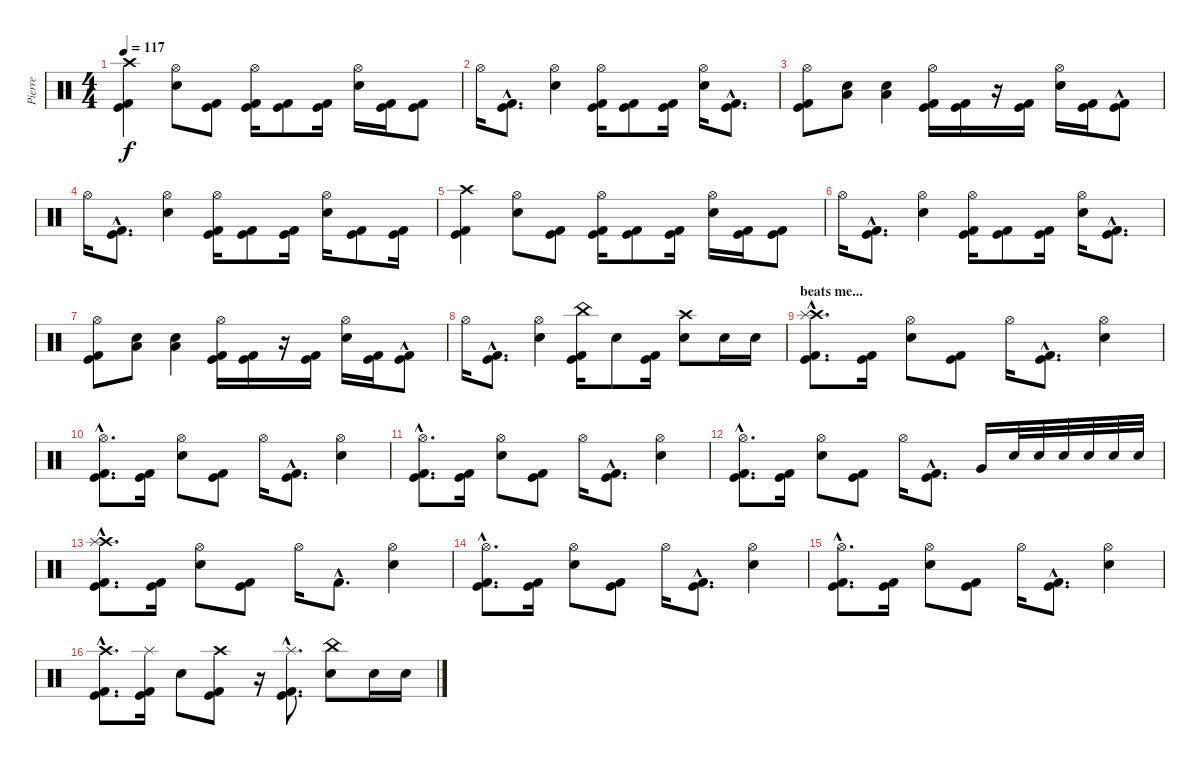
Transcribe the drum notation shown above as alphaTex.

\track ("Pierre" "Pierre") {instrument percussion}
\staff {score}
\articulation defaults
\ts (4 4)
\tempo 117
\clef neutral
\ks c
("Crash high (hit)" "Kick (hit)" "Kick (hit) 2").4{dy f} ("Hi-Hat (open)" "Electric Snare (hit)").8 ("Kick (hit)" "Kick (hit) 2").8 ("Hi-Hat (open)" "Kick (hit)" "Kick (hit) 2").16 ("Kick (hit)" "Kick (hit) 2").8 ("Kick (hit)" "Kick (hit) 2").16 ("Hi-Hat (open)" "Electric Snare (hit)").16 ("Kick (hit)" "Kick (hit) 2").16 ("Kick (hit)" "Kick (hit) 2").8 |
"Hi-Hat (open)".16 ("Kick (hit)"{hac} "Kick (hit) 2"{hac}).8{d} ("Hi-Hat (open)" "Electric Snare (hit)").4 ("Hi-Hat (open)" "Kick (hit)" "Kick (hit) 2").16 ("Kick (hit)" "Kick (hit) 2").8 ("Kick (hit)" "Kick (hit) 2").16 ("Hi-Hat (open)" "Electric Snare (hit)").16 ("Kick (hit)" "Kick (hit) 2"{hac}).8{d} |
("Hi-Hat (open)" "Kick (hit)" "Kick (hit) 2").8 ("Low Floor Tom (hit)" "Electric Snare (hit)").8 ("Low Floor Tom (hit)" "Electric Snare (hit)").4 ("Hi-Hat (open)" "Kick (hit) 2" "Kick (hit)").16 ("Kick (hit)" "Kick (hit) 2").16 r.16 ("Kick (hit)" "Kick (hit) 2").16 ("Hi-Hat (open)" "Electric Snare (hit)").16 ("Kick (hit)" "Kick (hit) 2").16 ("Kick (hit)" "Kick (hit) 2"{hac}).8 |
"Hi-Hat (open)".16 ("Kick (hit)"{hac} "Kick (hit) 2"{hac}).8{d} ("Hi-Hat (open)" "Electric Snare (hit)").4 ("Hi-Hat (open)" "Kick (hit)" "Kick (hit) 2").16 ("Kick (hit)" "Kick (hit) 2").8 ("Kick (hit)" "Kick (hit) 2").16 ("Hi-Hat (open)" "Electric Snare (hit)").16 ("Kick (hit)" "Kick (hit) 2").8 ("Kick (hit)" "Kick (hit) 2").16 |
("Crash high (hit)" "Kick (hit)" "Kick (hit) 2").4 ("Hi-Hat (open)" "Electric Snare (hit)").8 ("Kick (hit)" "Kick (hit) 2").8 ("Hi-Hat (open)" "Kick (hit)" "Kick (hit) 2").16 ("Kick (hit)" "Kick (hit) 2").8 ("Kick (hit)" "Kick (hit) 2").16 ("Hi-Hat (open)" "Electric Snare (hit)").16 ("Kick (hit)" "Kick (hit) 2").16 ("Kick (hit)" "Kick (hit) 2").8 |
"Hi-Hat (open)".16 ("Kick (hit)"{hac} "Kick (hit) 2"{hac}).8{d} ("Hi-Hat (open)" "Electric Snare (hit)").4 ("Hi-Hat (open)" "Kick (hit)" "Kick (hit) 2").16 ("Kick (hit)" "Kick (hit) 2").8 ("Kick (hit)" "Kick (hit) 2").16 ("Hi-Hat (open)" "Electric Snare (hit)").16 ("Kick (hit)" "Kick (hit) 2"{hac}).8{d} |
("Hi-Hat (open)" "Kick (hit)" "Kick (hit) 2").8 ("Low Floor Tom (hit)" "Electric Snare (hit)").8 ("Low Floor Tom (hit)" "Electric Snare (hit)").4 ("Hi-Hat (open)" "Kick (hit) 2" "Kick (hit)").16 ("Kick (hit)" "Kick (hit) 2").16 r.16 ("Kick (hit)" "Kick (hit) 2").16 ("Hi-Hat (open)" "Electric Snare (hit)").16 ("Kick (hit)" "Kick (hit) 2").16 ("Kick (hit)" "Kick (hit) 2"{hac}).8 |
"Hi-Hat (open)".16 ("Kick (hit)"{hac} "Kick (hit) 2"{hac}).8{d} ("Hi-Hat (open)" "Electric Snare (hit)").4 ("China (hit)" "Kick (hit)" "Kick (hit) 2").16 "Electric Snare (hit)".8 ("Kick (hit)" "Kick (hit) 2").16 ("Crash high (hit)" "Electric Snare (hit)").8 "Electric Snare (hit)".16 "Electric Snare (hit)".16 |
\section ("" "beats me...")
("Crash high (hit)"{hac} "Splash (hit)"{hac} "Kick (hit)"{hac} "Kick (hit) 2").8{d} ("Kick (hit)" "Kick (hit) 2").16 ("Hi-Hat (open)" "Electric Snare (hit)").8 ("Kick (hit)" "Kick (hit) 2").8 "Hi-Hat (open)".16 ("Kick (hit)"{hac} "Kick (hit) 2"{hac}).8{d} ("Hi-Hat (open)" "Electric Snare (hit)").4 |
("Hi-Hat (open)"{hac} "Kick (hit)"{hac} "Kick (hit) 2").8{d} ("Kick (hit)" "Kick (hit) 2").16 ("Hi-Hat (open)" "Electric Snare (hit)").8 ("Kick (hit)" "Kick (hit) 2").8 "Hi-Hat (open)".16 ("Kick (hit)"{hac} "Kick (hit) 2"{hac}).8{d} ("Hi-Hat (open)" "Electric Snare (hit)").4 |
("Hi-Hat (open)"{hac} "Kick (hit)"{hac} "Kick (hit) 2").8{d} ("Kick (hit)" "Kick (hit) 2").16 ("Hi-Hat (open)" "Electric Snare (hit)").8 ("Kick (hit)" "Kick (hit) 2").8 "Hi-Hat (open)".16 ("Kick (hit)"{hac} "Kick (hit) 2"{hac}).8{d} ("Hi-Hat (open)" "Electric Snare (hit)").4 |
("Hi-Hat (open)"{hac} "Kick (hit)" "Kick (hit) 2").8{d} ("Kick (hit)" "Kick (hit) 2").16 ("Hi-Hat (open)" "Electric Snare (hit)").8 ("Kick (hit)" "Kick (hit) 2").8 "Hi-Hat (open)".16 ("Kick (hit)"{hac} "Kick (hit) 2"{hac}).8{d} "Very Low Tom (hit)".16 "Electric Snare (hit)".32 "Electric Snare (hit)".32 "Electric Snare (hit)".32 "Electric Snare (hit)".32 "Electric Snare (hit)".32 "Electric Snare (hit)".32 |
("Crash high (hit)"{hac} "Splash (hit)"{hac} "Kick (hit)"{hac} "Kick (hit) 2").8{d} ("Kick (hit)" "Kick (hit) 2").16 ("Hi-Hat (open)" "Electric Snare (hit)").8 ("Kick (hit)" "Kick (hit) 2").8 "Hi-Hat (open)".16 "Kick (hit) 2"{hac}.8{d} ("Hi-Hat (open)" "Electric Snare (hit)").4 |
("Hi-Hat (open)"{hac} "Kick (hit)"{hac} "Kick (hit) 2").8{d} ("Kick (hit)" "Kick (hit) 2").16 ("Hi-Hat (open)" "Electric Snare (hit)").8 ("Kick (hit)" "Kick (hit) 2").8 "Hi-Hat (open)".16 ("Kick (hit)"{hac} "Kick (hit) 2"{hac}).8{d} ("Hi-Hat (open)" "Electric Snare (hit)").4 |
("Hi-Hat (open)"{hac} "Kick (hit)"{hac} "Kick (hit) 2").8{d} ("Kick (hit)" "Kick (hit) 2").16 ("Hi-Hat (open)" "Electric Snare (hit)").8 ("Kick (hit)" "Kick (hit) 2").8 "Hi-Hat (open)".16 ("Kick (hit)"{hac} "Kick (hit) 2"{hac}).8{d} ("Hi-Hat (open)" "Electric Snare (hit)").4 |
("Crash high (hit)"{hac} "Kick (hit)"{hac} "Kick (hit) 2").8{d} ("Splash (hit)" "Kick (hit)" "Kick (hit) 2").16 "Electric Snare (hit)".8 ("Crash high (hit)" "Kick (hit)" "Kick (hit) 2").8 r.16 ("Splash (hit)"{hac} "Kick (hit)"{hac} "Kick (hit) 2"{hac}).8{d} ("China (hit)" "Electric Snare (hit)").8 "Electric Snare (hit)".16 "Electric Snare (hit)".16
